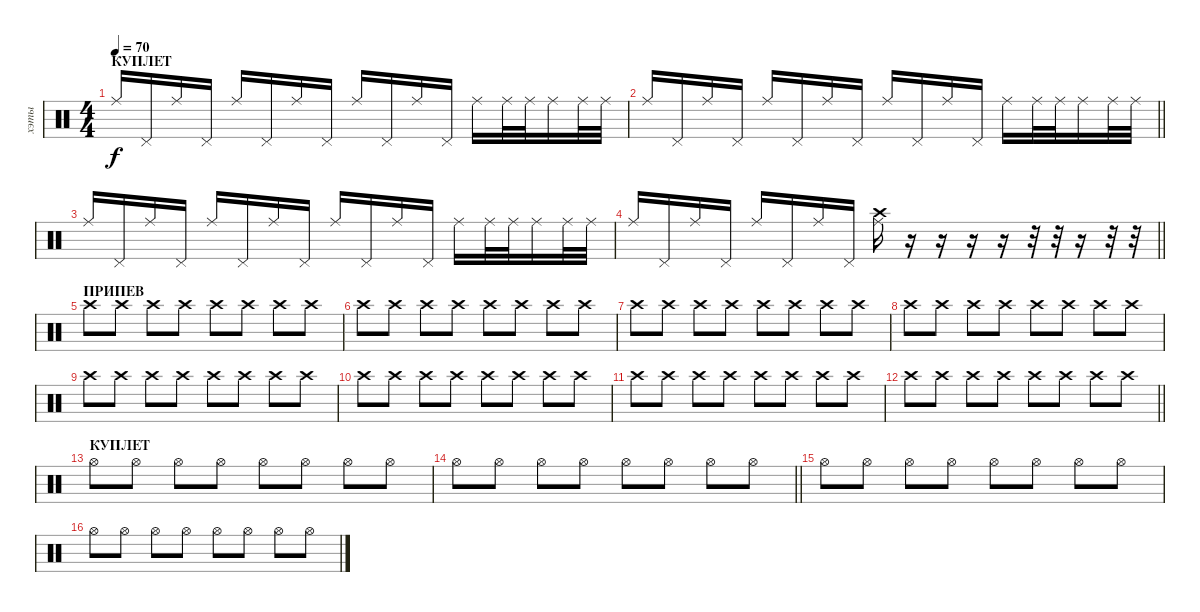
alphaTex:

\track ("хэты" "хэты") {instrument percussion}
\staff {score}
\articulation defaults
\ts (4 4)
\section ("" "КУПЛЕТ")
\tempo 70
\clef neutral
\ks c "Ride (middle)".16{dy f} "Pedal Hi-Hat (hit)".16 "Ride (middle)".16 "Pedal Hi-Hat (hit)".16 "Ride (middle)".16 "Pedal Hi-Hat (hit)".16 "Ride (middle)".16 "Pedal Hi-Hat (hit)".16 "Ride (middle)".16 "Pedal Hi-Hat (hit)".16 "Ride (middle)".16 "Pedal Hi-Hat (hit)".16 "Ride (middle)".16 "Ride (middle)".32 "Ride (middle)".32 "Ride (middle)".16 "Ride (middle)".32 "Ride (middle)".32
|
\barLineRight lightlight "Ride (middle)".16 "Pedal Hi-Hat (hit)".16 "Ride (middle)".16 "Pedal Hi-Hat (hit)".16 "Ride (middle)".16 "Pedal Hi-Hat (hit)".16 "Ride (middle)".16 "Pedal Hi-Hat (hit)".16 "Ride (middle)".16 "Pedal Hi-Hat (hit)".16 "Ride (middle)".16 "Pedal Hi-Hat (hit)".16 "Ride (middle)".16 "Ride (middle)".32 "Ride (middle)".32 "Ride (middle)".16 "Ride (middle)".32 "Ride (middle)".32
|
"Ride (middle)".16 "Pedal Hi-Hat (hit)".16 "Ride (middle)".16 "Pedal Hi-Hat (hit)".16 "Ride (middle)".16 "Pedal Hi-Hat (hit)".16 "Ride (middle)".16 "Pedal Hi-Hat (hit)".16 "Ride (middle)".16 "Pedal Hi-Hat (hit)".16 "Ride (middle)".16 "Pedal Hi-Hat (hit)".16 "Ride (middle)".16 "Ride (middle)".32 "Ride (middle)".32 "Ride (middle)".16 "Ride (middle)".32 "Ride (middle)".32 |
\barLineRight lightlight "Ride (middle)".16 "Pedal Hi-Hat (hit)".16 "Ride (middle)".16 "Pedal Hi-Hat (hit)".16 "Ride (middle)".16 "Pedal Hi-Hat (hit)".16 "Ride (middle)".16 "Pedal Hi-Hat (hit)".16
("Crash high (hit)" "Ride (middle)").16 r.16 r.16 r.16 r.16 r.32 r.32 r.16 r.32 r.32 |
\section ("" "ПРИПЕВ")
"Crash high (hit)".8 "Crash high (hit)".8 "Crash high (hit)".8 "Crash high (hit)".8 "Crash high (hit)".8 "Crash high (hit)".8 "Crash high (hit)".8 "Crash high (hit)".8 |
"Crash high (hit)".8 "Crash high (hit)".8 "Crash high (hit)".8 "Crash high (hit)".8 "Crash high (hit)".8 "Crash high (hit)".8 "Crash high (hit)".8 "Crash high (hit)".8 |
"Crash high (hit)".8 "Crash high (hit)".8 "Crash high (hit)".8 "Crash high (hit)".8 "Crash high (hit)".8 "Crash high (hit)".8 "Crash high (hit)".8 "Crash high (hit)".8 |
"Crash high (hit)".8 "Crash high (hit)".8 "Crash high (hit)".8 "Crash high (hit)".8 "Crash high (hit)".8 "Crash high (hit)".8 "Crash high (hit)".8 "Crash high (hit)".8 |
"Crash high (hit)".8 "Crash high (hit)".8 "Crash high (hit)".8 "Crash high (hit)".8 "Crash high (hit)".8 "Crash high (hit)".8 "Crash high (hit)".8 "Crash high (hit)".8 |
"Crash high (hit)".8 "Crash high (hit)".8 "Crash high (hit)".8 "Crash high (hit)".8 "Crash high (hit)".8 "Crash high (hit)".8 "Crash high (hit)".8 "Crash high (hit)".8 |
"Crash high (hit)".8 "Crash high (hit)".8 "Crash high (hit)".8 "Crash high (hit)".8 "Crash high (hit)".8 "Crash high (hit)".8 "Crash high (hit)".8 "Crash high (hit)".8 |
\barLineRight lightlight "Crash high (hit)".8 "Crash high (hit)".8 "Crash high (hit)".8 "Crash high (hit)".8 "Crash high (hit)".8 "Crash high (hit)".8 "Crash high (hit)".8 "Crash high (hit)".8
|
\section ("" "КУПЛЕТ")
"Hi-Hat (open)".8 "Hi-Hat (open)".8 "Hi-Hat (open)".8 "Hi-Hat (open)".8 "Hi-Hat (open)".8 "Hi-Hat (open)".8 "Hi-Hat (open)".8 "Hi-Hat (open)".8 |
\barLineRight lightlight "Hi-Hat (open)".8 "Hi-Hat (open)".8 "Hi-Hat (open)".8 "Hi-Hat (open)".8 "Hi-Hat (open)".8 "Hi-Hat (open)".8 "Hi-Hat (open)".8 "Hi-Hat (open)".8
|
"Hi-Hat (open)".8 "Hi-Hat (open)".8 "Hi-Hat (open)".8 "Hi-Hat (open)".8 "Hi-Hat (open)".8 "Hi-Hat (open)".8 "Hi-Hat (open)".8 "Hi-Hat (open)".8 |
"Hi-Hat (open)".8 "Hi-Hat (open)".8 "Hi-Hat (open)".8 "Hi-Hat (open)".8 "Hi-Hat (open)".8 "Hi-Hat (open)".8 "Hi-Hat (open)".8 "Hi-Hat (open)".8
